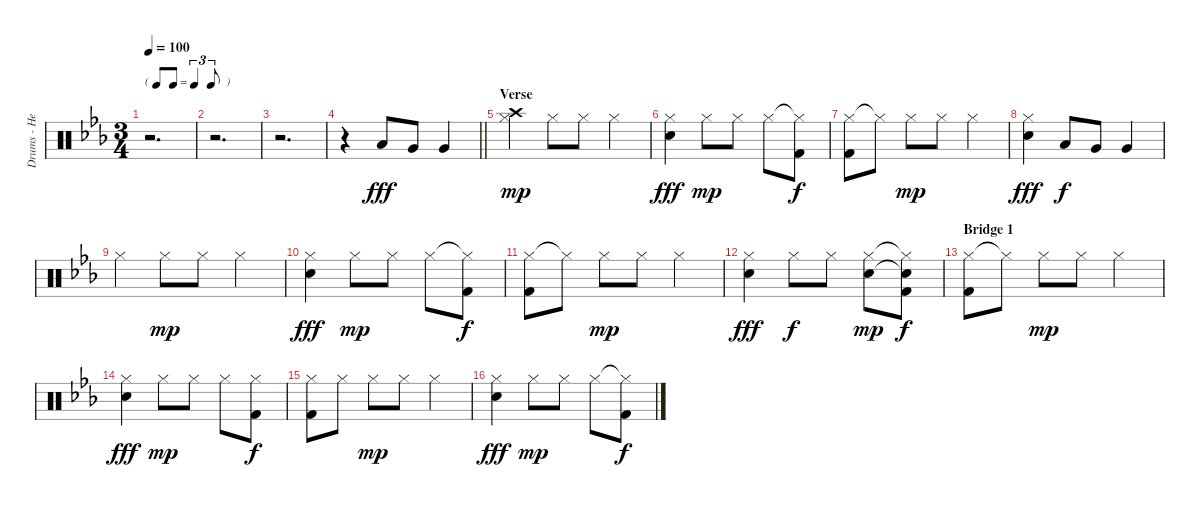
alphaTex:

\track ("Drums - Henley" "Drums - He") {instrument percussion}
\staff {score}
\articulation defaults
\ts (3 4)
\tf triplet8th
\tempo 100
\clef neutral
\ks eb
r.2{d dy fff} |
r.2{d} |
r.2{d} |
\barLineRight lightlight
r.4 "Low Floor Tom (hit)".8 "Very Low Tom (hit)".8 "Very Low Tom (hit)".4 |
\section ("" "Verse")
("Hi-Hat (closed)" "Crash high (hit)").4{dy mp} "Hi-Hat (closed)".8 "Hi-Hat (closed)".8 "Hi-Hat (closed)".4 |
("Hi-Hat (closed)" "Electric Snare (hit)").4{dy fff} "Hi-Hat (closed)".8{dy mp} "Hi-Hat (closed)".8 "Hi-Hat (closed)".8 ("Hi-Hat (closed)"{t} "Kick (hit) 2").8{dy f} |
("Hi-Hat (closed)" "Kick (hit) 2").8 "Hi-Hat (closed)"{t}.8 "Hi-Hat (closed)".8{dy mp} "Hi-Hat (closed)".8 "Hi-Hat (closed)".4 |
("Hi-Hat (closed)" "Electric Snare (hit)").4{dy fff} "Low Floor Tom (hit)".8{dy f} "Very Low Tom (hit)".8 "Very Low Tom (hit)".4 |
"Hi-Hat (closed)".4 "Hi-Hat (closed)".8{dy mp} "Hi-Hat (closed)".8 "Hi-Hat (closed)".4 |
("Hi-Hat (closed)" "Electric Snare (hit)").4{dy fff} "Hi-Hat (closed)".8{dy mp} "Hi-Hat (closed)".8 "Hi-Hat (closed)".8 ("Hi-Hat (closed)"{t} "Kick (hit) 2").8{dy f} |
("Hi-Hat (closed)" "Kick (hit) 2").8 "Hi-Hat (closed)"{t}.8 "Hi-Hat (closed)".8{dy mp} "Hi-Hat (closed)".8 "Hi-Hat (closed)".4 |
("Hi-Hat (closed)" "Electric Snare (hit)").4{dy fff} "Hi-Hat (closed)".8{dy f} "Hi-Hat (closed)".8 ("Hi-Hat (closed)" "Electric Snare (hit)").8{dy mp} ("Hi-Hat (closed)"{t} "Electric Snare (hit)"{t} "Kick (hit) 2").8{dy f} |
\section ("" "Bridge 1")
("Hi-Hat (closed)" "Kick (hit) 2").8 "Hi-Hat (closed)"{t}.8 "Hi-Hat (closed)".8{dy mp} "Hi-Hat (closed)".8 "Hi-Hat (closed)".4 |
("Hi-Hat (closed)" "Electric Snare (hit)").4{dy fff} "Hi-Hat (closed)".8{dy mp} "Hi-Hat (closed)".8 "Hi-Hat (closed)".8 ("Hi-Hat (closed)" "Kick (hit) 2").8{dy f} |
("Hi-Hat (closed)" "Kick (hit) 2").8 "Hi-Hat (closed)".8 "Hi-Hat (closed)".8{dy mp} "Hi-Hat (closed)".8 "Hi-Hat (closed)".4 |
("Hi-Hat (closed)" "Electric Snare (hit)").4{dy fff} "Hi-Hat (closed)".8{dy mp} "Hi-Hat (closed)".8 "Hi-Hat (closed)".8 ("Hi-Hat (closed)"{t} "Kick (hit) 2").8{dy f}
